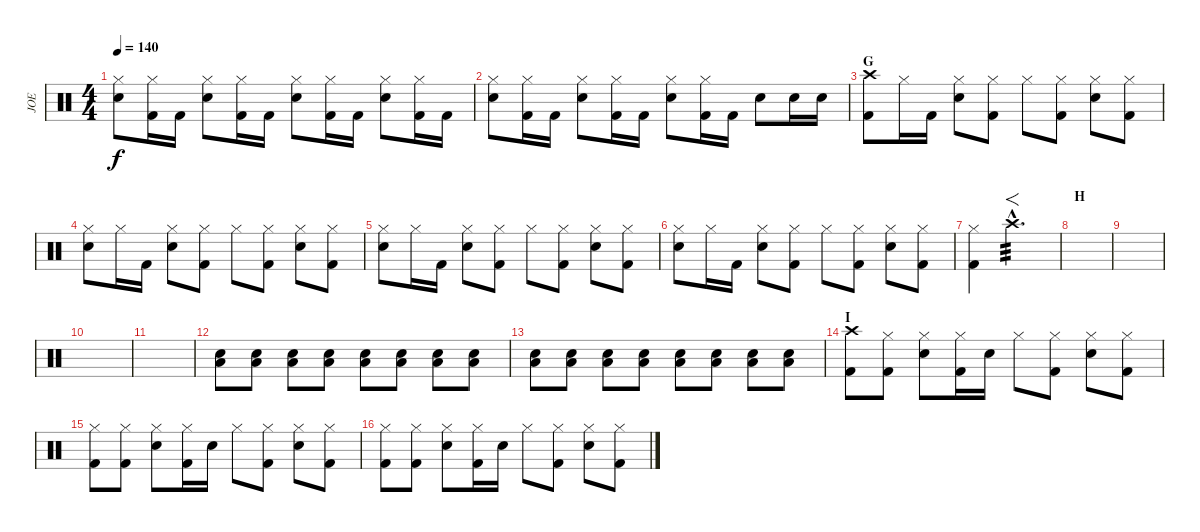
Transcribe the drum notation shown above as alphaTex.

\track ("JOE" "JOE") {instrument percussion}
\staff {score}
\articulation defaults
\ts (4 4)
\tempo 140
\clef neutral
\ks aminor
("Hi-Hat (closed)" "Snare (hit) 2").8{dy f} ("Hi-Hat (closed)" "Kick (hit) 2").16 "Kick (hit) 2".16 ("Hi-Hat (closed)" "Snare (hit) 2").8 ("Hi-Hat (closed)" "Kick (hit) 2").16 "Kick (hit) 2".16 ("Hi-Hat (closed)" "Snare (hit) 2").8 ("Hi-Hat (closed)" "Kick (hit) 2").16 "Kick (hit) 2".16 ("Hi-Hat (closed)" "Snare (hit) 2").8 ("Hi-Hat (closed)" "Kick (hit) 2").16 "Kick (hit) 2".16 |
("Hi-Hat (closed)" "Snare (hit) 2").8 ("Hi-Hat (closed)" "Kick (hit) 2").16 "Kick (hit) 2".16 ("Hi-Hat (closed)" "Snare (hit) 2").8 ("Hi-Hat (closed)" "Kick (hit) 2").16 "Kick (hit) 2".16 ("Hi-Hat (closed)" "Snare (hit) 2").8 ("Hi-Hat (closed)" "Kick (hit) 2").16 "Kick (hit) 2".16 "Snare (hit) 2".8 "Snare (hit) 2".16 "Snare (hit) 2".16 |
\section ("" "G")
("Crash high (hit)" "Kick (hit) 2").8 "Hi-Hat (closed)".16 "Kick (hit) 2".16 ("Hi-Hat (closed)" "Snare (hit) 2").8 ("Hi-Hat (closed)" "Kick (hit) 2").8 "Hi-Hat (closed)".8 ("Hi-Hat (closed)" "Kick (hit) 2").8 ("Hi-Hat (closed)" "Snare (hit) 2").8 ("Hi-Hat (closed)" "Kick (hit) 2").8 |
("Hi-Hat (closed)" "Hand Clap (hit)").8 "Hi-Hat (closed)".16 "Kick (hit) 2".16 ("Hi-Hat (closed)" "Snare (hit) 2").8 ("Hi-Hat (closed)" "Kick (hit) 2").8 "Hi-Hat (closed)".8 ("Hi-Hat (closed)" "Kick (hit) 2").8 ("Hi-Hat (closed)" "Snare (hit) 2").8 ("Hi-Hat (closed)" "Kick (hit) 2").8 |
("Hi-Hat (closed)" "Hand Clap (hit)").8 "Hi-Hat (closed)".16 "Kick (hit) 2".16 ("Hi-Hat (closed)" "Snare (hit) 2").8 ("Hi-Hat (closed)" "Kick (hit) 2").8 "Hi-Hat (closed)".8 ("Hi-Hat (closed)" "Kick (hit) 2").8 ("Hi-Hat (closed)" "Snare (hit) 2").8 ("Hi-Hat (closed)" "Kick (hit) 2").8 |
("Hi-Hat (closed)" "Hand Clap (hit)").8 "Hi-Hat (closed)".16 "Kick (hit) 2".16 ("Hi-Hat (closed)" "Snare (hit) 2").8 ("Hi-Hat (closed)" "Kick (hit) 2").8 "Hi-Hat (closed)".8 ("Hi-Hat (closed)" "Kick (hit) 2").8 ("Hi-Hat (closed)" "Snare (hit) 2").8 ("Hi-Hat (closed)" "Kick (hit) 2").8 |
("Hi-Hat (closed)" "Kick (hit) 2").4 "Crash high (hit)"{hac}.2{f d tp 3} |
\section ("" "H")
|
|
|
|
("Snare (hit) 2" "Low Floor Tom (hit)").8{volume 3} ("Snare (hit) 2" "Low Floor Tom (hit)").8 ("Snare (hit) 2" "Low Floor Tom (hit)").8{volume 4} ("Snare (hit) 2" "Low Floor Tom (hit)").8 ("Snare (hit) 2" "Low Floor Tom (hit)").8{volume 5} ("Snare (hit) 2" "Low Floor Tom (hit)").8 ("Snare (hit) 2" "Low Floor Tom (hit)").8{volume 6} ("Snare (hit) 2" "Low Floor Tom (hit)").8 |
("Snare (hit) 2" "Low Floor Tom (hit)").8{volume 8} ("Snare (hit) 2" "Low Floor Tom (hit)").8 ("Snare (hit) 2" "Low Floor Tom (hit)").8{volume 10} ("Snare (hit) 2" "Low Floor Tom (hit)").8 ("Snare (hit) 2" "Low Floor Tom (hit)").8{volume 12} ("Snare (hit) 2" "Low Floor Tom (hit)").8 ("Snare (hit) 2" "Low Floor Tom (hit)").8 ("Snare (hit) 2" "Low Floor Tom (hit)").8 |
\section ("" "I")
\ks c
("Crash high (hit)" "Kick (hit) 2").8{volume 10} ("Hi-Hat (closed)" "Kick (hit) 2").8 ("Hi-Hat (closed)" "Snare (hit) 2").8 ("Hi-Hat (closed)" "Kick (hit) 2").16 "Snare (hit) 2".16 "Hi-Hat (closed)".8 ("Hi-Hat (closed)" "Kick (hit) 2").8 ("Hi-Hat (closed)" "Snare (hit) 2").8 ("Hi-Hat (closed)" "Kick (hit) 2").8 |
("Hi-Hat (closed)" "Kick (hit) 2").8 ("Hi-Hat (closed)" "Kick (hit) 2").8 ("Hi-Hat (closed)" "Snare (hit) 2").8 ("Hi-Hat (closed)" "Kick (hit) 2").16 "Snare (hit) 2".16 "Hi-Hat (closed)".8 ("Hi-Hat (closed)" "Kick (hit) 2").8 ("Hi-Hat (closed)" "Snare (hit) 2").8 ("Hi-Hat (closed)" "Kick (hit) 2").8 |
("Hi-Hat (closed)" "Kick (hit) 2").8 ("Hi-Hat (closed)" "Kick (hit) 2").8 ("Hi-Hat (closed)" "Snare (hit) 2").8 ("Hi-Hat (closed)" "Kick (hit) 2").16 "Snare (hit) 2".16 "Hi-Hat (closed)".8 ("Hi-Hat (closed)" "Kick (hit) 2").8 ("Hi-Hat (closed)" "Snare (hit) 2").8 ("Hi-Hat (closed)" "Kick (hit) 2").8
